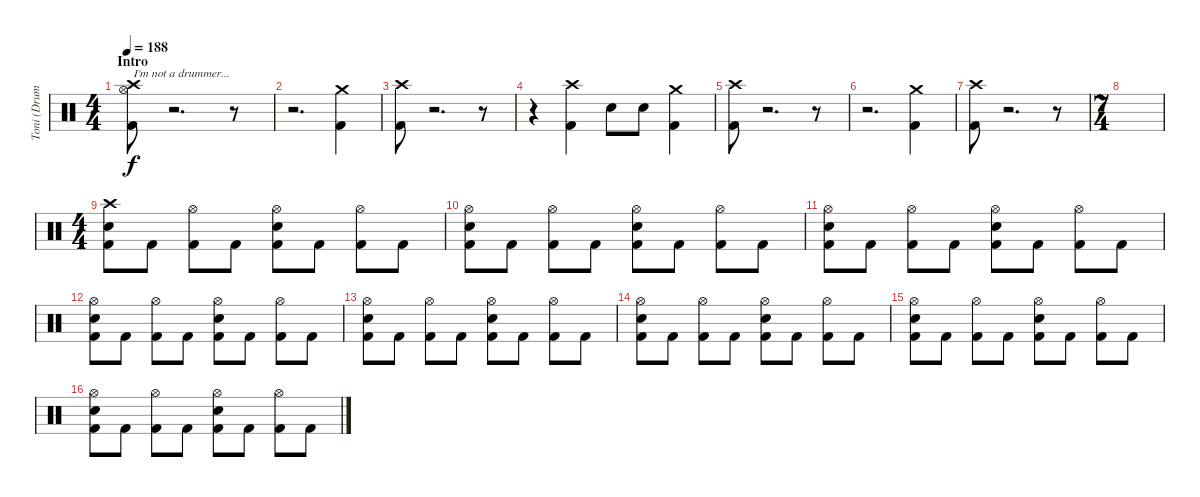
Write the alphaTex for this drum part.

\track ("Toni (Drums)" "Toni (Drum") {instrument percussion}
\staff {score}
\articulation defaults
\ts (4 4)
\section ("" "Intro")
\tempo 188
\clef neutral
\ks c
("Crash high (hit)" "Hi-Hat (open)" "Kick (hit) 2").8{txt "I'm not a drummer..." dy f} r.2{d} r.8 |
r.2{d} ("Crash medium (hit)" "Kick (hit) 2").4 |
("Crash high (hit)" "Kick (hit) 2").8 r.2{d} r.8 |
r.4 ("Crash high (hit)" "Kick (hit) 2").4 "Electric Snare (hit)".8 "Electric Snare (hit)".8 ("Crash medium (hit)" "Kick (hit) 2").4 |
("Crash high (hit)" "Kick (hit) 2").8 r.2{d} r.8 |
r.2{d} ("Crash medium (hit)" "Kick (hit) 2").4 |
("Crash high (hit)" "Kick (hit) 2").8 r.2{d} r.8 |
\ts (7 4)
|
\ts (4 4)
("Crash high (hit)" "Electric Snare (hit)" "Kick (hit) 2").8 "Kick (hit) 2".8 ("Hi-Hat (open)" "Kick (hit) 2").8 "Kick (hit) 2".8 ("Hi-Hat (open)" "Electric Snare (hit)" "Kick (hit) 2").8 "Kick (hit) 2".8 ("Hi-Hat (open)" "Kick (hit) 2").8 "Kick (hit) 2".8 |
("Hi-Hat (open)" "Electric Snare (hit)" "Kick (hit) 2").8 "Kick (hit) 2".8 ("Hi-Hat (open)" "Kick (hit) 2").8 "Kick (hit) 2".8 ("Hi-Hat (open)" "Electric Snare (hit)" "Kick (hit) 2").8 "Kick (hit) 2".8 ("Hi-Hat (open)" "Kick (hit) 2").8 "Kick (hit) 2".8 |
("Hi-Hat (open)" "Electric Snare (hit)" "Kick (hit) 2").8 "Kick (hit) 2".8 ("Hi-Hat (open)" "Kick (hit) 2").8 "Kick (hit) 2".8 ("Hi-Hat (open)" "Electric Snare (hit)" "Kick (hit) 2").8 "Kick (hit) 2".8 ("Hi-Hat (open)" "Kick (hit) 2").8 "Kick (hit) 2".8 |
("Hi-Hat (open)" "Electric Snare (hit)" "Kick (hit) 2").8 "Kick (hit) 2".8 ("Hi-Hat (open)" "Kick (hit) 2").8 "Kick (hit) 2".8 ("Hi-Hat (open)" "Electric Snare (hit)" "Kick (hit) 2").8 "Kick (hit) 2".8 ("Hi-Hat (open)" "Kick (hit) 2").8 "Kick (hit) 2".8 |
("Hi-Hat (open)" "Electric Snare (hit)" "Kick (hit) 2").8 "Kick (hit) 2".8 ("Hi-Hat (open)" "Kick (hit) 2").8 "Kick (hit) 2".8 ("Hi-Hat (open)" "Electric Snare (hit)" "Kick (hit) 2").8 "Kick (hit) 2".8 ("Hi-Hat (open)" "Kick (hit) 2").8 "Kick (hit) 2".8 |
("Hi-Hat (open)" "Electric Snare (hit)" "Kick (hit) 2").8 "Kick (hit) 2".8 ("Hi-Hat (open)" "Kick (hit) 2").8 "Kick (hit) 2".8 ("Hi-Hat (open)" "Electric Snare (hit)" "Kick (hit) 2").8 "Kick (hit) 2".8 ("Hi-Hat (open)" "Kick (hit) 2").8 "Kick (hit) 2".8 |
("Hi-Hat (open)" "Electric Snare (hit)" "Kick (hit) 2").8 "Kick (hit) 2".8 ("Hi-Hat (open)" "Kick (hit) 2").8 "Kick (hit) 2".8 ("Hi-Hat (open)" "Electric Snare (hit)" "Kick (hit) 2").8 "Kick (hit) 2".8 ("Hi-Hat (open)" "Kick (hit) 2").8 "Kick (hit) 2".8 |
("Hi-Hat (open)" "Electric Snare (hit)" "Kick (hit) 2").8 "Kick (hit) 2".8 ("Hi-Hat (open)" "Kick (hit) 2").8 "Kick (hit) 2".8 ("Hi-Hat (open)" "Electric Snare (hit)" "Kick (hit) 2").8 "Kick (hit) 2".8 ("Hi-Hat (open)" "Kick (hit) 2").8 "Kick (hit) 2".8
